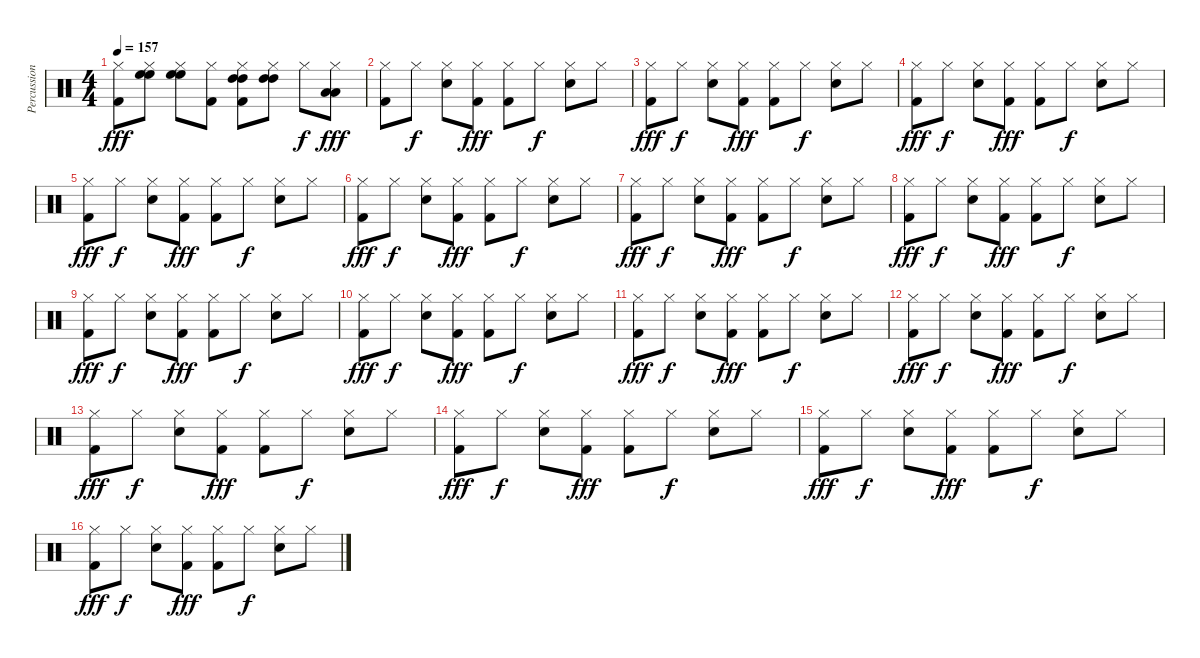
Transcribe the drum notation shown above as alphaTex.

\track ("Percussioni" "Percussion") {instrument percussion}
\staff {score}
\articulation defaults
\ts (4 4)
\tempo 157
\clef neutral
\ks c
("Hi-Hat (closed)" "Kick (hit) 2").8{dy fff} ("High Floor Tom (hit)" "High Floor Tom (hit)" "Hi-Hat (closed)").8 ("High Floor Tom (hit)" "High Floor Tom (hit)" "Hi-Hat (closed)").8 ("Hi-Hat (closed)" "Kick (hit) 2").8 ("High Tom (hit)" "High Tom (hit)" "Hi-Hat (closed)" "Kick (hit) 2").8 ("High Tom (hit)" "High Tom (hit)" "Hi-Hat (closed)").8 "Hi-Hat (closed)".8{dy f} ("Low Tom (hit)" "Low Tom (hit)" "Hi-Hat (closed)").8{dy fff} |
("Hi-Hat (closed)" "Kick (hit) 2").8 "Hi-Hat (closed)".8{dy f} ("Hi-Hat (closed)" "Snare (hit) 2").8 ("Hi-Hat (closed)" "Kick (hit) 2").8{dy fff} ("Hi-Hat (closed)" "Kick (hit) 2").8 "Hi-Hat (closed)".8{dy f} ("Hi-Hat (closed)" "Snare (hit) 2").8 "Hi-Hat (closed)".8 |
("Hi-Hat (closed)" "Kick (hit) 2").8{dy fff} "Hi-Hat (closed)".8{dy f} ("Hi-Hat (closed)" "Snare (hit) 2").8 ("Hi-Hat (closed)" "Kick (hit) 2").8{dy fff} ("Hi-Hat (closed)" "Kick (hit) 2").8 "Hi-Hat (closed)".8{dy f} ("Hi-Hat (closed)" "Snare (hit) 2").8 "Hi-Hat (closed)".8 |
("Hi-Hat (closed)" "Kick (hit) 2").8{dy fff} "Hi-Hat (closed)".8{dy f} ("Hi-Hat (closed)" "Snare (hit) 2").8 ("Hi-Hat (closed)" "Kick (hit) 2").8{dy fff} ("Hi-Hat (closed)" "Kick (hit) 2").8 "Hi-Hat (closed)".8{dy f} ("Hi-Hat (closed)" "Snare (hit) 2").8 "Hi-Hat (closed)".8 |
("Hi-Hat (closed)" "Kick (hit) 2").8{dy fff} "Hi-Hat (closed)".8{dy f} ("Hi-Hat (closed)" "Snare (hit) 2").8 ("Hi-Hat (closed)" "Kick (hit) 2").8{dy fff} ("Hi-Hat (closed)" "Kick (hit) 2").8 "Hi-Hat (closed)".8{dy f} ("Hi-Hat (closed)" "Snare (hit) 2").8 "Hi-Hat (closed)".8 |
("Hi-Hat (closed)" "Kick (hit) 2").8{dy fff} "Hi-Hat (closed)".8{dy f} ("Hi-Hat (closed)" "Snare (hit) 2").8 ("Hi-Hat (closed)" "Kick (hit) 2").8{dy fff} ("Hi-Hat (closed)" "Kick (hit) 2").8 "Hi-Hat (closed)".8{dy f} ("Hi-Hat (closed)" "Snare (hit) 2").8 "Hi-Hat (closed)".8 |
("Hi-Hat (closed)" "Kick (hit) 2").8{dy fff} "Hi-Hat (closed)".8{dy f} ("Hi-Hat (closed)" "Snare (hit) 2").8 ("Hi-Hat (closed)" "Kick (hit) 2").8{dy fff} ("Hi-Hat (closed)" "Kick (hit) 2").8 "Hi-Hat (closed)".8{dy f} ("Hi-Hat (closed)" "Snare (hit) 2").8 "Hi-Hat (closed)".8 |
("Hi-Hat (closed)" "Kick (hit) 2").8{dy fff} "Hi-Hat (closed)".8{dy f} ("Hi-Hat (closed)" "Snare (hit) 2").8 ("Hi-Hat (closed)" "Kick (hit) 2").8{dy fff} ("Hi-Hat (closed)" "Kick (hit) 2").8 "Hi-Hat (closed)".8{dy f} ("Hi-Hat (closed)" "Snare (hit) 2").8 "Hi-Hat (closed)".8 |
("Hi-Hat (closed)" "Kick (hit) 2").8{dy fff} "Hi-Hat (closed)".8{dy f} ("Hi-Hat (closed)" "Snare (hit) 2").8 ("Hi-Hat (closed)" "Kick (hit) 2").8{dy fff} ("Hi-Hat (closed)" "Kick (hit) 2").8 "Hi-Hat (closed)".8{dy f} ("Hi-Hat (closed)" "Snare (hit) 2").8 "Hi-Hat (closed)".8 |
("Hi-Hat (closed)" "Kick (hit) 2").8{dy fff} "Hi-Hat (closed)".8{dy f} ("Hi-Hat (closed)" "Snare (hit) 2").8 ("Hi-Hat (closed)" "Kick (hit) 2").8{dy fff} ("Hi-Hat (closed)" "Kick (hit) 2").8 "Hi-Hat (closed)".8{dy f} ("Hi-Hat (closed)" "Snare (hit) 2").8 "Hi-Hat (closed)".8 |
("Hi-Hat (closed)" "Kick (hit) 2").8{dy fff} "Hi-Hat (closed)".8{dy f} ("Hi-Hat (closed)" "Snare (hit) 2").8 ("Hi-Hat (closed)" "Kick (hit) 2").8{dy fff} ("Hi-Hat (closed)" "Kick (hit) 2").8 "Hi-Hat (closed)".8{dy f} ("Hi-Hat (closed)" "Snare (hit) 2").8 "Hi-Hat (closed)".8 |
("Hi-Hat (closed)" "Kick (hit) 2").8{dy fff} "Hi-Hat (closed)".8{dy f} ("Hi-Hat (closed)" "Snare (hit) 2").8 ("Hi-Hat (closed)" "Kick (hit) 2").8{dy fff} ("Hi-Hat (closed)" "Kick (hit) 2").8 "Hi-Hat (closed)".8{dy f} ("Hi-Hat (closed)" "Snare (hit) 2").8 "Hi-Hat (closed)".8 |
("Hi-Hat (closed)" "Kick (hit) 2").8{dy fff} "Hi-Hat (closed)".8{dy f} ("Hi-Hat (closed)" "Snare (hit) 2").8 ("Hi-Hat (closed)" "Kick (hit) 2").8{dy fff} ("Hi-Hat (closed)" "Kick (hit) 2").8 "Hi-Hat (closed)".8{dy f} ("Hi-Hat (closed)" "Snare (hit) 2").8 "Hi-Hat (closed)".8 |
("Hi-Hat (closed)" "Kick (hit) 2").8{dy fff} "Hi-Hat (closed)".8{dy f} ("Hi-Hat (closed)" "Snare (hit) 2").8 ("Hi-Hat (closed)" "Kick (hit) 2").8{dy fff} ("Hi-Hat (closed)" "Kick (hit) 2").8 "Hi-Hat (closed)".8{dy f} ("Hi-Hat (closed)" "Snare (hit) 2").8 "Hi-Hat (closed)".8 |
("Hi-Hat (closed)" "Kick (hit) 2").8{dy fff} "Hi-Hat (closed)".8{dy f} ("Hi-Hat (closed)" "Snare (hit) 2").8 ("Hi-Hat (closed)" "Kick (hit) 2").8{dy fff} ("Hi-Hat (closed)" "Kick (hit) 2").8 "Hi-Hat (closed)".8{dy f} ("Hi-Hat (closed)" "Snare (hit) 2").8 "Hi-Hat (closed)".8 |
("Hi-Hat (closed)" "Kick (hit) 2").8{dy fff} "Hi-Hat (closed)".8{dy f} ("Hi-Hat (closed)" "Snare (hit) 2").8 ("Hi-Hat (closed)" "Kick (hit) 2").8{dy fff} ("Hi-Hat (closed)" "Kick (hit) 2").8 "Hi-Hat (closed)".8{dy f} ("Hi-Hat (closed)" "Snare (hit) 2").8 "Hi-Hat (closed)".8
